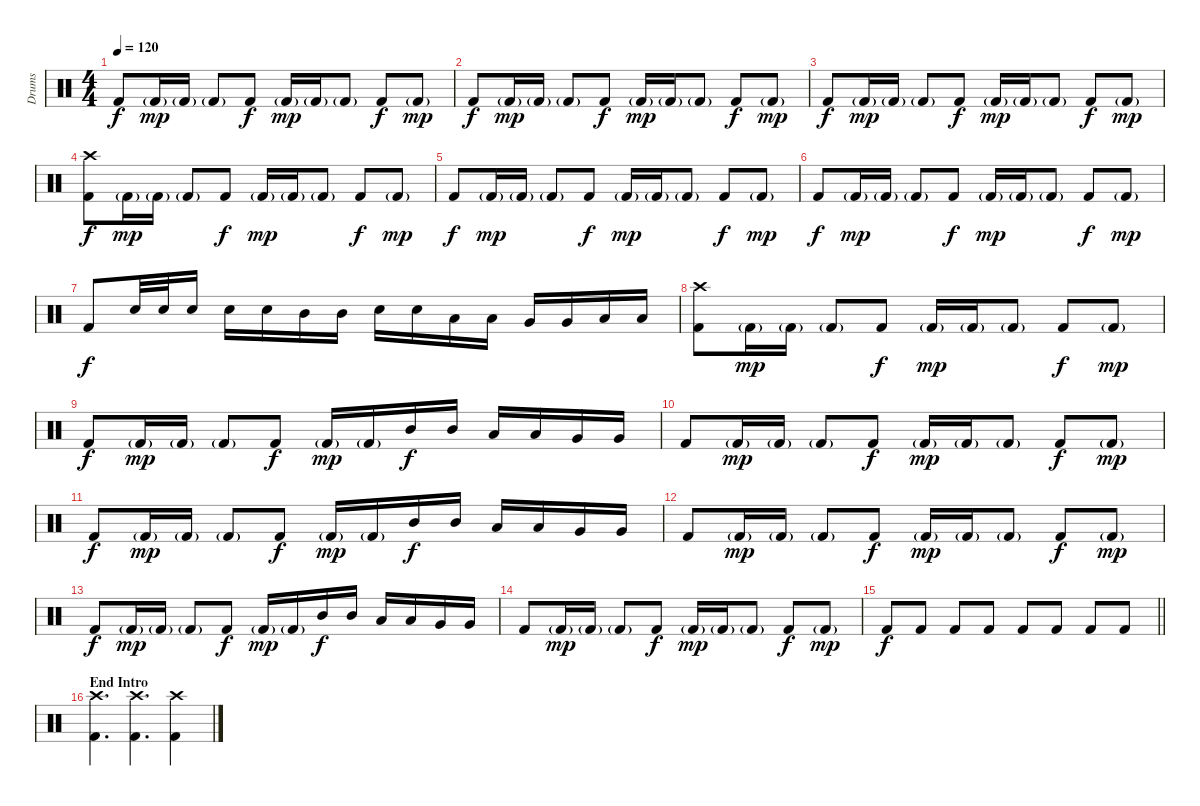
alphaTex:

\track ("Drums" "Drums") {instrument percussion}
\staff {score}
\articulation defaults
\ts (4 4)
\tempo 120
\clef neutral
\ks c "Kick (hit) 2".8{dy f} "Kick (hit) 2"{g}.16{dy mp} "Kick (hit) 2"{g}.16 "Kick (hit) 2"{g}.8 "Kick (hit) 2".8{dy f} "Kick (hit) 2"{g}.16{dy mp} "Kick (hit) 2"{g}.16 "Kick (hit) 2"{g}.8 "Kick (hit) 2".8{dy f} "Kick (hit) 2"{g}.8{dy mp}
|
"Kick (hit) 2".8{dy f} "Kick (hit) 2"{g}.16{dy mp} "Kick (hit) 2"{g}.16 "Kick (hit) 2"{g}.8 "Kick (hit) 2".8{dy f} "Kick (hit) 2"{g}.16{dy mp} "Kick (hit) 2"{g}.16 "Kick (hit) 2"{g}.8 "Kick (hit) 2".8{dy f} "Kick (hit) 2"{g}.8{dy mp} |
"Kick (hit) 2".8{dy f} "Kick (hit) 2"{g}.16{dy mp} "Kick (hit) 2"{g}.16 "Kick (hit) 2"{g}.8 "Kick (hit) 2".8{dy f} "Kick (hit) 2"{g}.16{dy mp} "Kick (hit) 2"{g}.16 "Kick (hit) 2"{g}.8 "Kick (hit) 2".8{dy f} "Kick (hit) 2"{g}.8{dy mp} |
("Crash high (hit)" "Kick (hit) 2").8{dy f} "Kick (hit) 2"{g}.16{dy mp} "Kick (hit) 2"{g}.16 "Kick (hit) 2"{g}.8 "Kick (hit) 2".8{dy f} "Kick (hit) 2"{g}.16{dy mp} "Kick (hit) 2"{g}.16 "Kick (hit) 2"{g}.8 "Kick (hit) 2".8{dy f} "Kick (hit) 2"{g}.8{dy mp} |
"Kick (hit) 2".8{dy f} "Kick (hit) 2"{g}.16{dy mp} "Kick (hit) 2"{g}.16 "Kick (hit) 2"{g}.8 "Kick (hit) 2".8{dy f} "Kick (hit) 2"{g}.16{dy mp} "Kick (hit) 2"{g}.16 "Kick (hit) 2"{g}.8 "Kick (hit) 2".8{dy f} "Kick (hit) 2"{g}.8{dy mp} |
"Kick (hit) 2".8{dy f} "Kick (hit) 2"{g}.16{dy mp} "Kick (hit) 2"{g}.16 "Kick (hit) 2"{g}.8 "Kick (hit) 2".8{dy f} "Kick (hit) 2"{g}.16{dy mp} "Kick (hit) 2"{g}.16 "Kick (hit) 2"{g}.8 "Kick (hit) 2".8{dy f} "Kick (hit) 2"{g}.8{dy mp} |
"Kick (hit) 2".8{dy f} "Electric Snare (hit)".32 "Electric Snare (hit)".32 "Electric Snare (hit)".16 "Electric Snare (hit)".16 "Electric Snare (hit)".16 "Mid Tom (hit)".16 "Mid Tom (hit)".16 "Electric Snare (hit)".16 "Electric Snare (hit)".16 "Low Tom (hit)".16 "Low Tom (hit)".16 "Very Low Tom (hit)".16 "Very Low Tom (hit)".16 "Low Floor Tom (hit)".16 "Low Floor Tom (hit)".16 |
("Crash high (hit)" "Kick (hit) 2").8 "Kick (hit) 2"{g}.16{dy mp} "Kick (hit) 2"{g}.16 "Kick (hit) 2"{g}.8 "Kick (hit) 2".8{dy f} "Kick (hit) 2"{g}.16{dy mp} "Kick (hit) 2"{g}.16 "Kick (hit) 2"{g}.8 "Kick (hit) 2".8{dy f} "Kick (hit) 2"{g}.8{dy mp} |
"Kick (hit) 2".8{dy f} "Kick (hit) 2"{g}.16{dy mp} "Kick (hit) 2"{g}.16 "Kick (hit) 2"{g}.8 "Kick (hit) 2".8{dy f} "Kick (hit) 2"{g}.16{dy mp} "Kick (hit) 2"{g}.16 "Mid Tom (hit)".16{dy f} "Mid Tom (hit)".16 "Low Tom (hit)".16 "Low Tom (hit)".16 "Very Low Tom (hit)".16 "Very Low Tom (hit)".16 |
"Kick (hit) 2".8 "Kick (hit) 2"{g}.16{dy mp} "Kick (hit) 2"{g}.16 "Kick (hit) 2"{g}.8 "Kick (hit) 2".8{dy f} "Kick (hit) 2"{g}.16{dy mp} "Kick (hit) 2"{g}.16 "Kick (hit) 2"{g}.8 "Kick (hit) 2".8{dy f} "Kick (hit) 2"{g}.8{dy mp} |
"Kick (hit) 2".8{dy f} "Kick (hit) 2"{g}.16{dy mp} "Kick (hit) 2"{g}.16 "Kick (hit) 2"{g}.8 "Kick (hit) 2".8{dy f} "Kick (hit) 2"{g}.16{dy mp} "Kick (hit) 2"{g}.16 "Mid Tom (hit)".16{dy f} "Mid Tom (hit)".16 "Low Tom (hit)".16 "Low Tom (hit)".16 "Very Low Tom (hit)".16 "Very Low Tom (hit)".16 |
"Kick (hit) 2".8 "Kick (hit) 2"{g}.16{dy mp} "Kick (hit) 2"{g}.16 "Kick (hit) 2"{g}.8 "Kick (hit) 2".8{dy f} "Kick (hit) 2"{g}.16{dy mp} "Kick (hit) 2"{g}.16 "Kick (hit) 2"{g}.8 "Kick (hit) 2".8{dy f} "Kick (hit) 2"{g}.8{dy mp} |
"Kick (hit) 2".8{dy f} "Kick (hit) 2"{g}.16{dy mp} "Kick (hit) 2"{g}.16 "Kick (hit) 2"{g}.8 "Kick (hit) 2".8{dy f} "Kick (hit) 2"{g}.16{dy mp} "Kick (hit) 2"{g}.16 "Mid Tom (hit)".16{dy f} "Mid Tom (hit)".16 "Low Tom (hit)".16 "Low Tom (hit)".16 "Very Low Tom (hit)".16 "Very Low Tom (hit)".16 |
"Kick (hit) 2".8 "Kick (hit) 2"{g}.16{dy mp} "Kick (hit) 2"{g}.16 "Kick (hit) 2"{g}.8 "Kick (hit) 2".8{dy f} "Kick (hit) 2"{g}.16{dy mp} "Kick (hit) 2"{g}.16 "Kick (hit) 2"{g}.8 "Kick (hit) 2".8{dy f} "Kick (hit) 2"{g}.8{dy mp} |
\barLineRight lightlight "Kick (hit) 2".8{dy f} "Kick (hit) 2".8 "Kick (hit) 2".8 "Kick (hit) 2".8 "Kick (hit) 2".8 "Kick (hit) 2".8 "Kick (hit) 2".8 "Kick (hit) 2".8
|
\section ("" "End Intro")
("Crash high (hit)" "Kick (hit) 2").4{d} ("Crash high (hit)" "Kick (hit) 2").4{d} ("Crash high (hit)" "Kick (hit) 2").4
